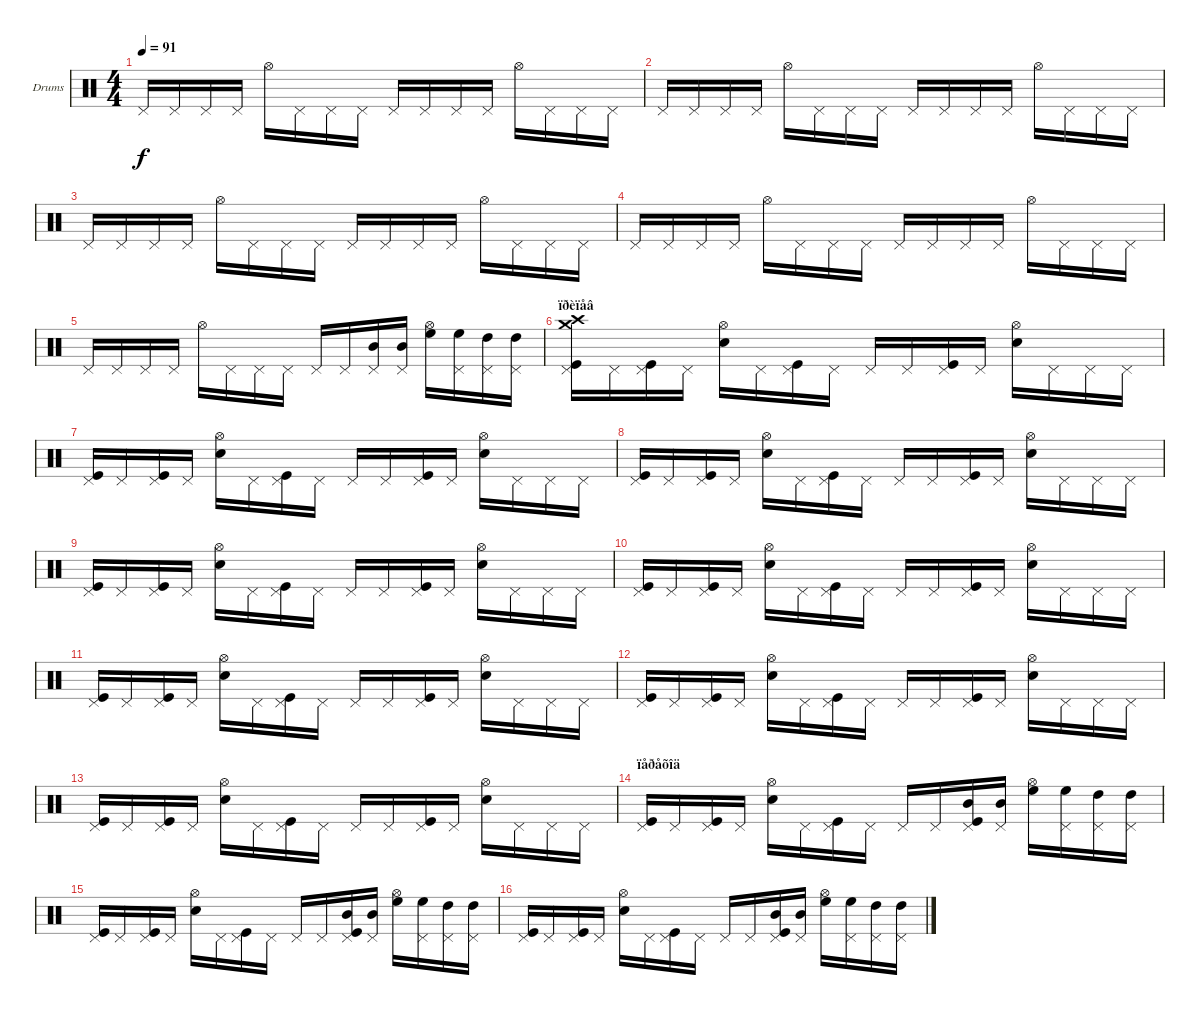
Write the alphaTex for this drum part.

\bracketExtendMode groupsimilarinstruments
\firstSystemTrackNameOrientation horizontal
\otherSystemsTrackNameOrientation horizontal
\track ("Drumkit" "Drums") {instrument percussion}
\staff {score}
\articulation defaults
\ts (4 4)
\tempo 91
\clef neutral
\ks c "Pedal Hi-Hat (hit)".16{dy f} "Pedal Hi-Hat (hit)".16 "Pedal Hi-Hat (hit)".16 "Pedal Hi-Hat (hit)".16 "Hi-Hat (open)".16 "Pedal Hi-Hat (hit)".16 "Pedal Hi-Hat (hit)".16 "Pedal Hi-Hat (hit)".16 "Pedal Hi-Hat (hit)".16 "Pedal Hi-Hat (hit)".16 "Pedal Hi-Hat (hit)".16 "Pedal Hi-Hat (hit)".16 "Hi-Hat (open)".16 "Pedal Hi-Hat (hit)".16 "Pedal Hi-Hat (hit)".16 "Pedal Hi-Hat (hit)".16
|
"Pedal Hi-Hat (hit)".16 "Pedal Hi-Hat (hit)".16 "Pedal Hi-Hat (hit)".16 "Pedal Hi-Hat (hit)".16 "Hi-Hat (open)".16 "Pedal Hi-Hat (hit)".16 "Pedal Hi-Hat (hit)".16 "Pedal Hi-Hat (hit)".16 "Pedal Hi-Hat (hit)".16 "Pedal Hi-Hat (hit)".16 "Pedal Hi-Hat (hit)".16 "Pedal Hi-Hat (hit)".16 "Hi-Hat (open)".16 "Pedal Hi-Hat (hit)".16 "Pedal Hi-Hat (hit)".16 "Pedal Hi-Hat (hit)".16 |
"Pedal Hi-Hat (hit)".16 "Pedal Hi-Hat (hit)".16 "Pedal Hi-Hat (hit)".16 "Pedal Hi-Hat (hit)".16 "Hi-Hat (open)".16 "Pedal Hi-Hat (hit)".16 "Pedal Hi-Hat (hit)".16 "Pedal Hi-Hat (hit)".16 "Pedal Hi-Hat (hit)".16 "Pedal Hi-Hat (hit)".16 "Pedal Hi-Hat (hit)".16 "Pedal Hi-Hat (hit)".16 "Hi-Hat (open)".16 "Pedal Hi-Hat (hit)".16 "Pedal Hi-Hat (hit)".16 "Pedal Hi-Hat (hit)".16 |
"Pedal Hi-Hat (hit)".16 "Pedal Hi-Hat (hit)".16 "Pedal Hi-Hat (hit)".16 "Pedal Hi-Hat (hit)".16 "Hi-Hat (open)".16 "Pedal Hi-Hat (hit)".16 "Pedal Hi-Hat (hit)".16 "Pedal Hi-Hat (hit)".16 "Pedal Hi-Hat (hit)".16 "Pedal Hi-Hat (hit)".16 "Pedal Hi-Hat (hit)".16 "Pedal Hi-Hat (hit)".16 "Hi-Hat (open)".16 "Pedal Hi-Hat (hit)".16 "Pedal Hi-Hat (hit)".16 "Pedal Hi-Hat (hit)".16 |
"Pedal Hi-Hat (hit)".16 "Pedal Hi-Hat (hit)".16 "Pedal Hi-Hat (hit)".16 "Pedal Hi-Hat (hit)".16 "Hi-Hat (open)".16 "Pedal Hi-Hat (hit)".16 "Pedal Hi-Hat (hit)".16 "Pedal Hi-Hat (hit)".16 "Pedal Hi-Hat (hit)".16 "Pedal Hi-Hat (hit)".16 ("Pedal Hi-Hat (hit)" "Mid Tom (hit)").16 ("Pedal Hi-Hat (hit)" "Mid Tom (hit)").16 ("Hi-Hat (open)" "High Floor Tom (hit)").16 ("Pedal Hi-Hat (hit)" "High Floor Tom (hit)").16 ("Pedal Hi-Hat (hit)" "High Tom (hit)").16 ("Pedal Hi-Hat (hit)" "High Tom (hit)").16 |
\section ("" "ïðèïåâ")
("Pedal Hi-Hat (hit)" "Kick (hit)" "Crash medium (hit)" "Crash high (hit)").16 "Pedal Hi-Hat (hit)".16 ("Pedal Hi-Hat (hit)" "Kick (hit)").16 "Pedal Hi-Hat (hit)".16 ("Hi-Hat (open)" "Snare (hit) 2").16 "Pedal Hi-Hat (hit)".16 ("Pedal Hi-Hat (hit)" "Kick (hit)").16 "Pedal Hi-Hat (hit)".16 "Pedal Hi-Hat (hit)".16 "Pedal Hi-Hat (hit)".16 ("Pedal Hi-Hat (hit)" "Kick (hit)").16 "Pedal Hi-Hat (hit)".16 ("Hi-Hat (open)" "Snare (hit) 2").16 "Pedal Hi-Hat (hit)".16 "Pedal Hi-Hat (hit)".16 "Pedal Hi-Hat (hit)".16 |
("Pedal Hi-Hat (hit)" "Kick (hit)").16 "Pedal Hi-Hat (hit)".16 ("Pedal Hi-Hat (hit)" "Kick (hit)").16 "Pedal Hi-Hat (hit)".16 ("Hi-Hat (open)" "Snare (hit) 2").16 "Pedal Hi-Hat (hit)".16 ("Pedal Hi-Hat (hit)" "Kick (hit)").16 "Pedal Hi-Hat (hit)".16 "Pedal Hi-Hat (hit)".16 "Pedal Hi-Hat (hit)".16 ("Pedal Hi-Hat (hit)" "Kick (hit)").16 "Pedal Hi-Hat (hit)".16 ("Hi-Hat (open)" "Snare (hit) 2").16 "Pedal Hi-Hat (hit)".16 "Pedal Hi-Hat (hit)".16 "Pedal Hi-Hat (hit)".16 |
("Pedal Hi-Hat (hit)" "Kick (hit)").16 "Pedal Hi-Hat (hit)".16 ("Pedal Hi-Hat (hit)" "Kick (hit)").16 "Pedal Hi-Hat (hit)".16 ("Hi-Hat (open)" "Snare (hit) 2").16 "Pedal Hi-Hat (hit)".16 ("Pedal Hi-Hat (hit)" "Kick (hit)").16 "Pedal Hi-Hat (hit)".16 "Pedal Hi-Hat (hit)".16 "Pedal Hi-Hat (hit)".16 ("Pedal Hi-Hat (hit)" "Kick (hit)").16 "Pedal Hi-Hat (hit)".16 ("Hi-Hat (open)" "Snare (hit) 2").16 "Pedal Hi-Hat (hit)".16 "Pedal Hi-Hat (hit)".16 "Pedal Hi-Hat (hit)".16 |
("Pedal Hi-Hat (hit)" "Kick (hit)").16 "Pedal Hi-Hat (hit)".16 ("Pedal Hi-Hat (hit)" "Kick (hit)").16 "Pedal Hi-Hat (hit)".16 ("Hi-Hat (open)" "Snare (hit) 2").16 "Pedal Hi-Hat (hit)".16 ("Pedal Hi-Hat (hit)" "Kick (hit)").16 "Pedal Hi-Hat (hit)".16 "Pedal Hi-Hat (hit)".16 "Pedal Hi-Hat (hit)".16 ("Pedal Hi-Hat (hit)" "Kick (hit)").16 "Pedal Hi-Hat (hit)".16 ("Hi-Hat (open)" "Snare (hit) 2").16 "Pedal Hi-Hat (hit)".16 "Pedal Hi-Hat (hit)".16 "Pedal Hi-Hat (hit)".16 |
("Pedal Hi-Hat (hit)" "Kick (hit)").16 "Pedal Hi-Hat (hit)".16 ("Pedal Hi-Hat (hit)" "Kick (hit)").16 "Pedal Hi-Hat (hit)".16 ("Hi-Hat (open)" "Snare (hit) 2").16 "Pedal Hi-Hat (hit)".16 ("Pedal Hi-Hat (hit)" "Kick (hit)").16 "Pedal Hi-Hat (hit)".16 "Pedal Hi-Hat (hit)".16 "Pedal Hi-Hat (hit)".16 ("Pedal Hi-Hat (hit)" "Kick (hit)").16 "Pedal Hi-Hat (hit)".16 ("Hi-Hat (open)" "Snare (hit) 2").16 "Pedal Hi-Hat (hit)".16 "Pedal Hi-Hat (hit)".16 "Pedal Hi-Hat (hit)".16 |
("Pedal Hi-Hat (hit)" "Kick (hit)").16 "Pedal Hi-Hat (hit)".16 ("Pedal Hi-Hat (hit)" "Kick (hit)").16 "Pedal Hi-Hat (hit)".16 ("Hi-Hat (open)" "Snare (hit) 2").16 "Pedal Hi-Hat (hit)".16 ("Pedal Hi-Hat (hit)" "Kick (hit)").16 "Pedal Hi-Hat (hit)".16 "Pedal Hi-Hat (hit)".16 "Pedal Hi-Hat (hit)".16 ("Pedal Hi-Hat (hit)" "Kick (hit)").16 "Pedal Hi-Hat (hit)".16 ("Hi-Hat (open)" "Snare (hit) 2").16 "Pedal Hi-Hat (hit)".16 "Pedal Hi-Hat (hit)".16 "Pedal Hi-Hat (hit)".16 |
("Pedal Hi-Hat (hit)" "Kick (hit)").16 "Pedal Hi-Hat (hit)".16 ("Pedal Hi-Hat (hit)" "Kick (hit)").16 "Pedal Hi-Hat (hit)".16 ("Hi-Hat (open)" "Snare (hit) 2").16 "Pedal Hi-Hat (hit)".16 ("Pedal Hi-Hat (hit)" "Kick (hit)").16 "Pedal Hi-Hat (hit)".16 "Pedal Hi-Hat (hit)".16 "Pedal Hi-Hat (hit)".16 ("Pedal Hi-Hat (hit)" "Kick (hit)").16 "Pedal Hi-Hat (hit)".16 ("Hi-Hat (open)" "Snare (hit) 2").16 "Pedal Hi-Hat (hit)".16 "Pedal Hi-Hat (hit)".16 "Pedal Hi-Hat (hit)".16 |
("Pedal Hi-Hat (hit)" "Kick (hit)").16 "Pedal Hi-Hat (hit)".16 ("Pedal Hi-Hat (hit)" "Kick (hit)").16 "Pedal Hi-Hat (hit)".16 ("Hi-Hat (open)" "Snare (hit) 2").16 "Pedal Hi-Hat (hit)".16 ("Pedal Hi-Hat (hit)" "Kick (hit)").16 "Pedal Hi-Hat (hit)".16 "Pedal Hi-Hat (hit)".16 "Pedal Hi-Hat (hit)".16 ("Pedal Hi-Hat (hit)" "Kick (hit)").16 "Pedal Hi-Hat (hit)".16 ("Hi-Hat (open)" "Snare (hit) 2").16 "Pedal Hi-Hat (hit)".16 "Pedal Hi-Hat (hit)".16 "Pedal Hi-Hat (hit)".16 |
\section ("" "ïåðåõîä")
("Pedal Hi-Hat (hit)" "Kick (hit)").16 "Pedal Hi-Hat (hit)".16 ("Pedal Hi-Hat (hit)" "Kick (hit)").16 "Pedal Hi-Hat (hit)".16 ("Hi-Hat (open)" "Snare (hit) 2").16 "Pedal Hi-Hat (hit)".16 ("Pedal Hi-Hat (hit)" "Kick (hit)").16 "Pedal Hi-Hat (hit)".16 "Pedal Hi-Hat (hit)".16 "Pedal Hi-Hat (hit)".16 ("Pedal Hi-Hat (hit)" "Kick (hit)" "Mid Tom (hit)").16 ("Pedal Hi-Hat (hit)" "Mid Tom (hit)").16 ("Hi-Hat (open)" "High Floor Tom (hit)").16 ("Pedal Hi-Hat (hit)" "High Floor Tom (hit)").16 ("Pedal Hi-Hat (hit)" "High Tom (hit)").16 ("Pedal Hi-Hat (hit)" "High Tom (hit)").16 |
("Pedal Hi-Hat (hit)" "Kick (hit)").16 "Pedal Hi-Hat (hit)".16 ("Pedal Hi-Hat (hit)" "Kick (hit)").16 "Pedal Hi-Hat (hit)".16 ("Hi-Hat (open)" "Snare (hit) 2").16 "Pedal Hi-Hat (hit)".16 ("Pedal Hi-Hat (hit)" "Kick (hit)").16 "Pedal Hi-Hat (hit)".16 "Pedal Hi-Hat (hit)".16 "Pedal Hi-Hat (hit)".16 ("Pedal Hi-Hat (hit)" "Kick (hit)" "Mid Tom (hit)").16 ("Pedal Hi-Hat (hit)" "Mid Tom (hit)").16 ("Hi-Hat (open)" "High Floor Tom (hit)").16 ("Pedal Hi-Hat (hit)" "High Floor Tom (hit)").16 ("Pedal Hi-Hat (hit)" "High Tom (hit)").16 ("Pedal Hi-Hat (hit)" "High Tom (hit)").16 |
("Pedal Hi-Hat (hit)" "Kick (hit)").16 "Pedal Hi-Hat (hit)".16 ("Pedal Hi-Hat (hit)" "Kick (hit)").16 "Pedal Hi-Hat (hit)".16 ("Hi-Hat (open)" "Snare (hit) 2").16 "Pedal Hi-Hat (hit)".16 ("Pedal Hi-Hat (hit)" "Kick (hit)").16 "Pedal Hi-Hat (hit)".16 "Pedal Hi-Hat (hit)".16 "Pedal Hi-Hat (hit)".16 ("Pedal Hi-Hat (hit)" "Kick (hit)" "Mid Tom (hit)").16 ("Pedal Hi-Hat (hit)" "Mid Tom (hit)").16 ("Hi-Hat (open)" "High Floor Tom (hit)").16 ("Pedal Hi-Hat (hit)" "High Floor Tom (hit)").16 ("Pedal Hi-Hat (hit)" "High Tom (hit)").16 ("Pedal Hi-Hat (hit)" "High Tom (hit)").16
